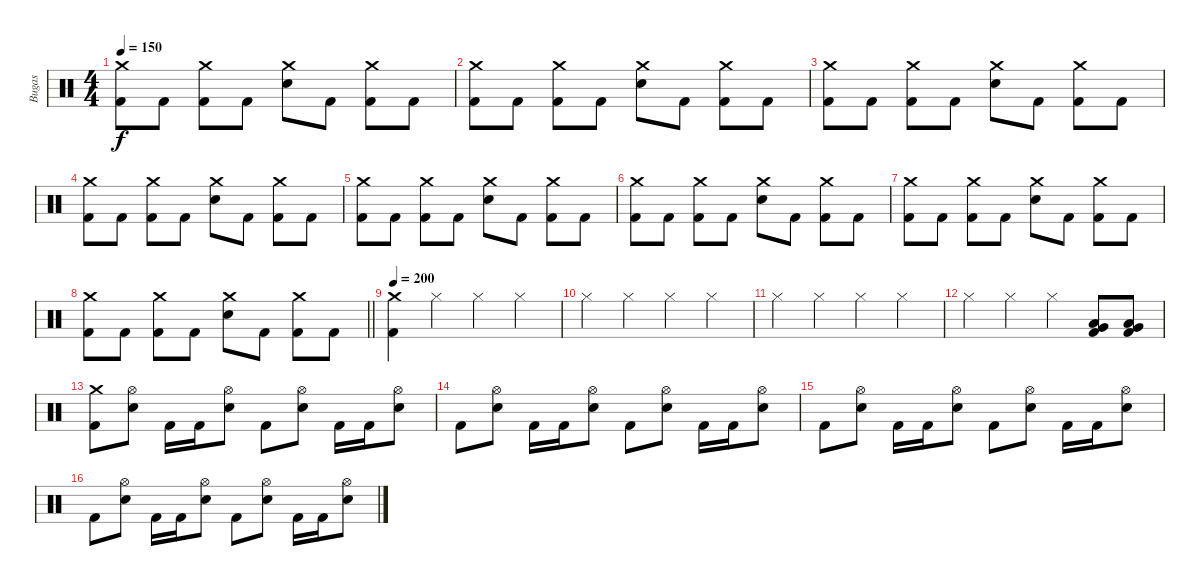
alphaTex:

\track ("Bugas" "Bugas") {instrument percussion}
\staff {score}
\articulation defaults
\ts (4 4)
\tempo 150
\clef neutral
\ks c
("Crash medium (hit)" "Kick (hit) 2").8{dy f} "Kick (hit) 2".8 ("Crash medium (hit)" "Kick (hit) 2").8 "Kick (hit) 2".8 ("Crash medium (hit)" "Electric Snare (hit)").8 "Kick (hit) 2".8 ("Crash medium (hit)" "Kick (hit) 2").8 "Kick (hit) 2".8 |
("Crash medium (hit)" "Kick (hit) 2").8 "Kick (hit) 2".8 ("Crash medium (hit)" "Kick (hit) 2").8 "Kick (hit) 2".8 ("Crash medium (hit)" "Electric Snare (hit)").8 "Kick (hit) 2".8 ("Crash medium (hit)" "Kick (hit) 2").8 "Kick (hit) 2".8 |
("Crash medium (hit)" "Kick (hit) 2").8 "Kick (hit) 2".8 ("Crash medium (hit)" "Kick (hit) 2").8 "Kick (hit) 2".8 ("Crash medium (hit)" "Electric Snare (hit)").8 "Kick (hit) 2".8 ("Crash medium (hit)" "Kick (hit) 2").8 "Kick (hit) 2".8 |
("Crash medium (hit)" "Kick (hit) 2").8 "Kick (hit) 2".8 ("Crash medium (hit)" "Kick (hit) 2").8 "Kick (hit) 2".8 ("Crash medium (hit)" "Electric Snare (hit)").8 "Kick (hit) 2".8 ("Crash medium (hit)" "Kick (hit) 2").8 "Kick (hit) 2".8 |
("Crash medium (hit)" "Kick (hit) 2").8 "Kick (hit) 2".8 ("Crash medium (hit)" "Kick (hit) 2").8 "Kick (hit) 2".8 ("Crash medium (hit)" "Electric Snare (hit)").8 "Kick (hit) 2".8 ("Crash medium (hit)" "Kick (hit) 2").8 "Kick (hit) 2".8 |
("Crash medium (hit)" "Kick (hit) 2").8 "Kick (hit) 2".8 ("Crash medium (hit)" "Kick (hit) 2").8 "Kick (hit) 2".8 ("Crash medium (hit)" "Electric Snare (hit)").8 "Kick (hit) 2".8 ("Crash medium (hit)" "Kick (hit) 2").8 "Kick (hit) 2".8 |
("Crash medium (hit)" "Kick (hit) 2").8 "Kick (hit) 2".8 ("Crash medium (hit)" "Kick (hit) 2").8 "Kick (hit) 2".8 ("Crash medium (hit)" "Electric Snare (hit)").8 "Kick (hit) 2".8 ("Crash medium (hit)" "Kick (hit) 2").8 "Kick (hit) 2".8 |
\barLineRight lightlight
("Crash medium (hit)" "Kick (hit) 2").8 "Kick (hit) 2".8 ("Crash medium (hit)" "Kick (hit) 2").8 "Kick (hit) 2".8 ("Crash medium (hit)" "Electric Snare (hit)").8 "Kick (hit) 2".8 ("Crash medium (hit)" "Kick (hit) 2").8 "Kick (hit) 2".8 |
\tempo 200
("Crash medium (hit)" "Kick (hit) 2").4 "Hi-Hat (closed)".4 "Hi-Hat (closed)".4 "Hi-Hat (closed)".4 |
"Hi-Hat (closed)".4 "Hi-Hat (closed)".4 "Hi-Hat (closed)".4 "Hi-Hat (closed)".4 |
"Hi-Hat (closed)".4 "Hi-Hat (closed)".4 "Hi-Hat (closed)".4 "Hi-Hat (closed)".4 |
"Hi-Hat (closed)".4 "Hi-Hat (closed)".4 "Hi-Hat (closed)".4 ("Very Low Tom (hit)" "Kick (hit) 2" "Low Tom (hit)").8 ("Very Low Tom (hit)" "Kick (hit) 2" "Low Tom (hit)").8 |
("Crash medium (hit)" "Kick (hit) 2").8 ("Hi-Hat (open)" "Electric Snare (hit)").8 "Kick (hit) 2".16 "Kick (hit) 2".16 ("Hi-Hat (open)" "Electric Snare (hit)").8 "Kick (hit) 2".8 ("Hi-Hat (open)" "Electric Snare (hit)").8 "Kick (hit) 2".16 "Kick (hit) 2".16 ("Hi-Hat (open)" "Electric Snare (hit)").8 |
"Kick (hit) 2".8 ("Hi-Hat (open)" "Electric Snare (hit)").8 "Kick (hit) 2".16 "Kick (hit) 2".16 ("Hi-Hat (open)" "Electric Snare (hit)").8 "Kick (hit) 2".8 ("Hi-Hat (open)" "Electric Snare (hit)").8 "Kick (hit) 2".16 "Kick (hit) 2".16 ("Hi-Hat (open)" "Electric Snare (hit)").8 |
"Kick (hit) 2".8 ("Hi-Hat (open)" "Electric Snare (hit)").8 "Kick (hit) 2".16 "Kick (hit) 2".16 ("Hi-Hat (open)" "Electric Snare (hit)").8 "Kick (hit) 2".8 ("Hi-Hat (open)" "Electric Snare (hit)").8 "Kick (hit) 2".16 "Kick (hit) 2".16 ("Hi-Hat (open)" "Electric Snare (hit)").8 |
"Kick (hit) 2".8 ("Hi-Hat (open)" "Electric Snare (hit)").8 "Kick (hit) 2".16 "Kick (hit) 2".16 ("Hi-Hat (open)" "Electric Snare (hit)").8 "Kick (hit) 2".8 ("Hi-Hat (open)" "Electric Snare (hit)").8 "Kick (hit) 2".16 "Kick (hit) 2".16 ("Hi-Hat (open)" "Electric Snare (hit)").8
